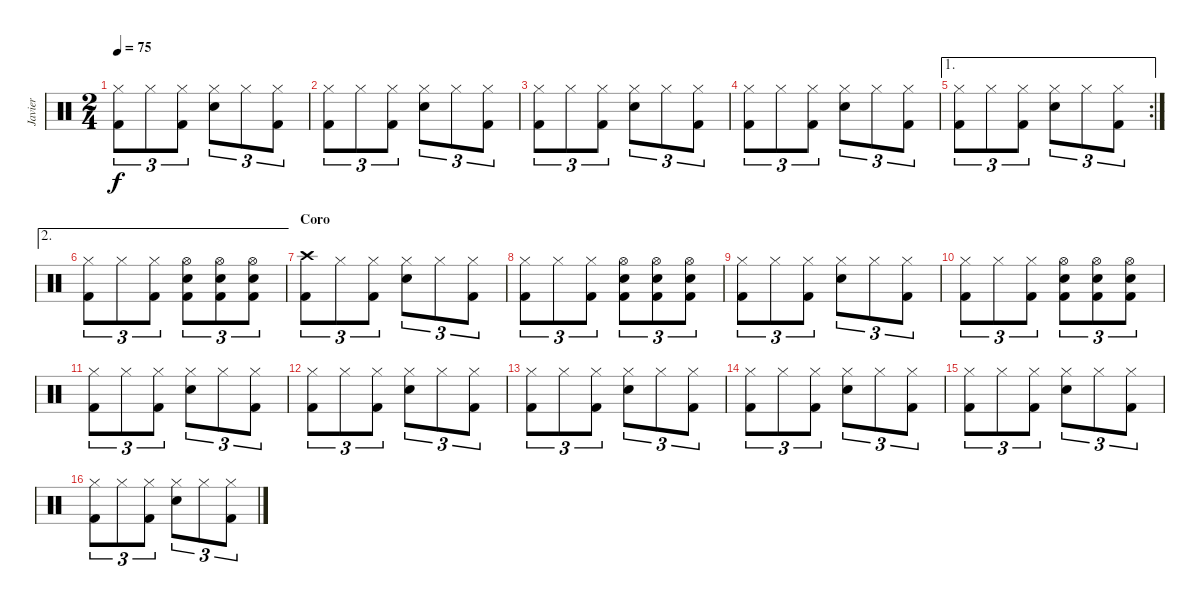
\track ("Javier" "Javier") {instrument percussion}
\staff {score}
\articulation defaults
\ts (2 4)
\tempo 75
\clef neutral
\ks c
("Hi-Hat (closed)" "Kick (hit) 2").8{tu (3 2) dy f} "Hi-Hat (closed)".8{tu (3 2)} ("Hi-Hat (closed)" "Kick (hit) 2").8{tu (3 2)} ("Hi-Hat (closed)" "Snare (hit) 2").8{tu (3 2)} "Hi-Hat (closed)".8{tu (3 2)} ("Hi-Hat (closed)" "Kick (hit) 2").8{tu (3 2)} |
("Hi-Hat (closed)" "Kick (hit) 2").8{tu (3 2)} "Hi-Hat (closed)".8{tu (3 2)} ("Hi-Hat (closed)" "Kick (hit) 2").8{tu (3 2)} ("Hi-Hat (closed)" "Snare (hit) 2").8{tu (3 2)} "Hi-Hat (closed)".8{tu (3 2)} ("Hi-Hat (closed)" "Kick (hit) 2").8{tu (3 2)} |
("Hi-Hat (closed)" "Kick (hit) 2").8{tu (3 2)} "Hi-Hat (closed)".8{tu (3 2)} ("Hi-Hat (closed)" "Kick (hit) 2").8{tu (3 2)} ("Hi-Hat (closed)" "Snare (hit) 2").8{tu (3 2)} "Hi-Hat (closed)".8{tu (3 2)} ("Hi-Hat (closed)" "Kick (hit) 2").8{tu (3 2)} |
("Hi-Hat (closed)" "Kick (hit) 2").8{tu (3 2)} "Hi-Hat (closed)".8{tu (3 2)} ("Hi-Hat (closed)" "Kick (hit) 2").8{tu (3 2)} ("Hi-Hat (closed)" "Snare (hit) 2").8{tu (3 2)} "Hi-Hat (closed)".8{tu (3 2)} ("Hi-Hat (closed)" "Kick (hit) 2").8{tu (3 2)} |
\ae 1
\rc 2
("Hi-Hat (closed)" "Kick (hit) 2").8{tu (3 2)} "Hi-Hat (closed)".8{tu (3 2)} ("Hi-Hat (closed)" "Kick (hit) 2").8{tu (3 2)} ("Hi-Hat (closed)" "Snare (hit) 2").8{tu (3 2)} "Hi-Hat (closed)".8{tu (3 2)} ("Hi-Hat (closed)" "Kick (hit) 2").8{tu (3 2)} |
\ae 2
("Hi-Hat (closed)" "Kick (hit) 2").8{tu (3 2)} "Hi-Hat (closed)".8{tu (3 2)} ("Hi-Hat (closed)" "Kick (hit) 2").8{tu (3 2)} ("Hi-Hat (open)" "Snare (hit) 2" "Kick (hit) 2").8{tu (3 2)} ("Hi-Hat (open)" "Snare (hit) 2" "Kick (hit) 2").8{tu (3 2)} ("Hi-Hat (open)" "Snare (hit) 2" "Kick (hit) 2").8{tu (3 2)} |
\section ("" "Coro")
("Crash high (hit)" "Kick (hit) 2").8{tu (3 2)} "Hi-Hat (closed)".8{tu (3 2)} ("Hi-Hat (closed)" "Kick (hit) 2").8{tu (3 2)} ("Hi-Hat (closed)" "Snare (hit) 2").8{tu (3 2)} "Hi-Hat (closed)".8{tu (3 2)} ("Hi-Hat (closed)" "Kick (hit) 2").8{tu (3 2)} |
("Hi-Hat (closed)" "Kick (hit) 2").8{tu (3 2)} "Hi-Hat (closed)".8{tu (3 2)} ("Hi-Hat (closed)" "Kick (hit) 2").8{tu (3 2)} ("Hi-Hat (open)" "Snare (hit) 2" "Kick (hit) 2").8{tu (3 2)} ("Hi-Hat (open)" "Snare (hit) 2" "Kick (hit) 2").8{tu (3 2)} ("Hi-Hat (open)" "Snare (hit) 2" "Kick (hit) 2").8{tu (3 2)} |
("Hi-Hat (closed)" "Kick (hit) 2").8{tu (3 2)} "Hi-Hat (closed)".8{tu (3 2)} ("Hi-Hat (closed)" "Kick (hit) 2").8{tu (3 2)} ("Hi-Hat (closed)" "Snare (hit) 2").8{tu (3 2)} "Hi-Hat (closed)".8{tu (3 2)} ("Hi-Hat (closed)" "Kick (hit) 2").8{tu (3 2)} |
("Hi-Hat (closed)" "Kick (hit) 2").8{tu (3 2)} "Hi-Hat (closed)".8{tu (3 2)} ("Hi-Hat (closed)" "Kick (hit) 2").8{tu (3 2)} ("Hi-Hat (open)" "Snare (hit) 2" "Kick (hit) 2").8{tu (3 2)} ("Hi-Hat (open)" "Snare (hit) 2" "Kick (hit) 2").8{tu (3 2)} ("Hi-Hat (open)" "Snare (hit) 2" "Kick (hit) 2").8{tu (3 2)} |
("Hi-Hat (closed)" "Kick (hit) 2").8{tu (3 2)} "Hi-Hat (closed)".8{tu (3 2)} ("Hi-Hat (closed)" "Kick (hit) 2").8{tu (3 2)} ("Hi-Hat (closed)" "Snare (hit) 2").8{tu (3 2)} "Hi-Hat (closed)".8{tu (3 2)} ("Hi-Hat (closed)" "Kick (hit) 2").8{tu (3 2)} |
("Hi-Hat (closed)" "Kick (hit) 2").8{tu (3 2)} "Hi-Hat (closed)".8{tu (3 2)} ("Hi-Hat (closed)" "Kick (hit) 2").8{tu (3 2)} ("Hi-Hat (closed)" "Snare (hit) 2").8{tu (3 2)} "Hi-Hat (closed)".8{tu (3 2)} ("Hi-Hat (closed)" "Kick (hit) 2").8{tu (3 2)} |
("Hi-Hat (closed)" "Kick (hit) 2").8{tu (3 2)} "Hi-Hat (closed)".8{tu (3 2)} ("Hi-Hat (closed)" "Kick (hit) 2").8{tu (3 2)} ("Hi-Hat (closed)" "Snare (hit) 2").8{tu (3 2)} "Hi-Hat (closed)".8{tu (3 2)} ("Hi-Hat (closed)" "Kick (hit) 2").8{tu (3 2)} |
("Hi-Hat (closed)" "Kick (hit) 2").8{tu (3 2)} "Hi-Hat (closed)".8{tu (3 2)} ("Hi-Hat (closed)" "Kick (hit) 2").8{tu (3 2)} ("Hi-Hat (closed)" "Snare (hit) 2").8{tu (3 2)} "Hi-Hat (closed)".8{tu (3 2)} ("Hi-Hat (closed)" "Kick (hit) 2").8{tu (3 2)} |
("Hi-Hat (closed)" "Kick (hit) 2").8{tu (3 2)} "Hi-Hat (closed)".8{tu (3 2)} ("Hi-Hat (closed)" "Kick (hit) 2").8{tu (3 2)} ("Hi-Hat (closed)" "Snare (hit) 2").8{tu (3 2)} "Hi-Hat (closed)".8{tu (3 2)} ("Hi-Hat (closed)" "Kick (hit) 2").8{tu (3 2)} |
("Hi-Hat (closed)" "Kick (hit) 2").8{tu (3 2)} "Hi-Hat (closed)".8{tu (3 2)} ("Hi-Hat (closed)" "Kick (hit) 2").8{tu (3 2)} ("Hi-Hat (closed)" "Snare (hit) 2").8{tu (3 2)} "Hi-Hat (closed)".8{tu (3 2)} ("Hi-Hat (closed)" "Kick (hit) 2").8{tu (3 2)}
